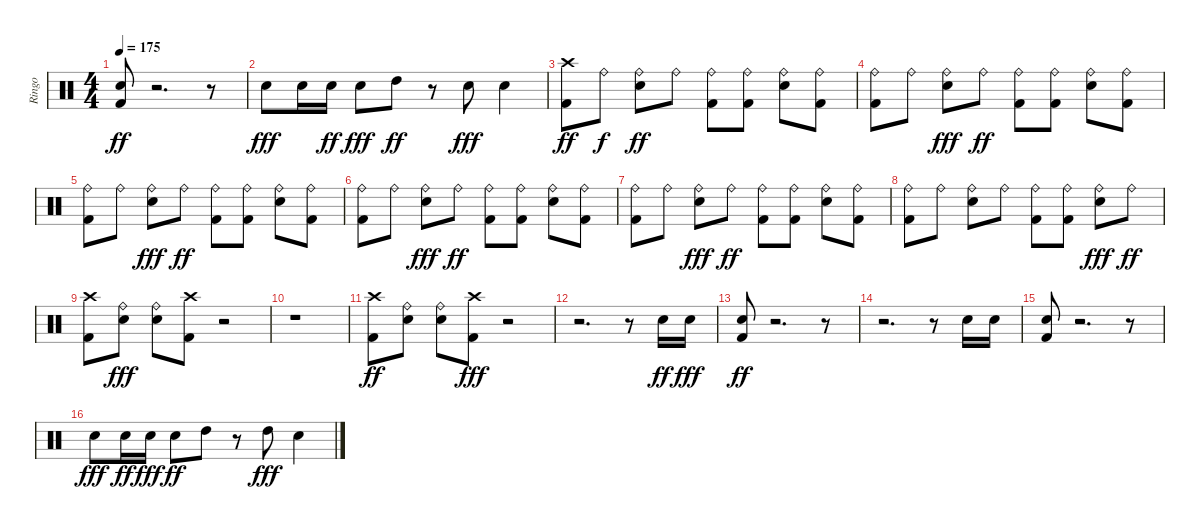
\track ("Ringo" "Ringo") {instrument percussion}
\staff {score}
\articulation defaults
\ts (4 4)
\tempo 175
\clef neutral
\ks c
("Snare (hit) 2" "Kick (hit) 2").8{dy ff} r.2{d} r.8 |
"Snare (hit) 2".8{dy fff} "Snare (hit) 2".16 "Snare (hit) 2".16{dy ff} "Snare (hit) 2".8{dy fff} "High Tom (hit)".8{dy ff} r.8 "Snare (hit) 2".8{dy fff} "Snare (hit) 2".4 |
("Kick (hit) 2" "Crash high (hit)").8{dy ff} "Ride (bell)".8{dy f} ("Snare (hit) 2" "Ride (bell)").8{dy ff} "Ride (bell)".8 ("Kick (hit) 2" "Ride (bell)").8 ("Kick (hit) 2" "Ride (bell)").8 ("Snare (hit) 2" "Ride (bell)").8 ("Kick (hit) 2" "Ride (bell)").8 |
("Kick (hit) 2" "Ride (bell)").8 "Ride (bell)".8 ("Ride (bell)" "Snare (hit) 2").8{dy fff} "Ride (bell)".8{dy ff} ("Kick (hit) 2" "Ride (bell)").8 ("Kick (hit) 2" "Ride (bell)").8 ("Snare (hit) 2" "Ride (bell)").8 ("Ride (bell)" "Kick (hit) 2").8 |
("Kick (hit) 2" "Ride (bell)").8 "Ride (bell)".8 ("Ride (bell)" "Snare (hit) 2").8{dy fff} "Ride (bell)".8{dy ff} ("Kick (hit) 2" "Ride (bell)").8 ("Kick (hit) 2" "Ride (bell)").8 ("Snare (hit) 2" "Ride (bell)").8 ("Ride (bell)" "Kick (hit) 2").8 |
("Kick (hit) 2" "Ride (bell)").8 "Ride (bell)".8 ("Ride (bell)" "Snare (hit) 2").8{dy fff} "Ride (bell)".8{dy ff} ("Kick (hit) 2" "Ride (bell)").8 ("Kick (hit) 2" "Ride (bell)").8 ("Snare (hit) 2" "Ride (bell)").8 ("Ride (bell)" "Kick (hit) 2").8 |
("Kick (hit) 2" "Ride (bell)").8 "Ride (bell)".8 ("Ride (bell)" "Snare (hit) 2").8{dy fff} "Ride (bell)".8{dy ff} ("Kick (hit) 2" "Ride (bell)").8 ("Kick (hit) 2" "Ride (bell)").8 ("Snare (hit) 2" "Ride (bell)").8 ("Ride (bell)" "Kick (hit) 2").8 |
("Kick (hit) 2" "Ride (bell)").8 "Ride (bell)".8 ("Snare (hit) 2" "Ride (bell)").8 "Ride (bell)".8 ("Kick (hit) 2" "Ride (bell)").8 ("Kick (hit) 2" "Ride (bell)").8 ("Snare (hit) 2" "Ride (bell)").8{dy fff} "Ride (bell)".8{dy ff} |
("Kick (hit) 2" "Crash high (hit)").8 ("Ride (bell)" "Snare (hit) 2").8{dy fff} ("Snare (hit) 2" "Ride (bell)").8 ("Crash high (hit)" "Kick (hit) 2").8 r.2 |
r.1 |
("Kick (hit) 2" "Crash high (hit)").8{dy ff} ("Snare (hit) 2" "Ride (bell)").8 ("Snare (hit) 2" "Ride (bell)").8 ("Crash high (hit)" "Kick (hit) 2").8{dy fff} r.2 |
r.2{d} r.8 "Snare (hit) 2".16{dy ff} "Snare (hit) 2".16{dy fff} |
("Snare (hit) 2" "Kick (hit) 2").8{dy ff} r.2{d} r.8 |
r.2{d} r.8 "Snare (hit) 2".16 "Snare (hit) 2".16 |
("Snare (hit) 2" "Kick (hit) 2").8 r.2{d} r.8 |
"Snare (hit) 2".8{dy fff} "Snare (hit) 2".16{dy ff} "Snare (hit) 2".16{dy fff} "Snare (hit) 2".8{dy ff} "High Tom (hit)".8 r.8 "High Tom (hit)".8{dy fff} "Snare (hit) 2".4
